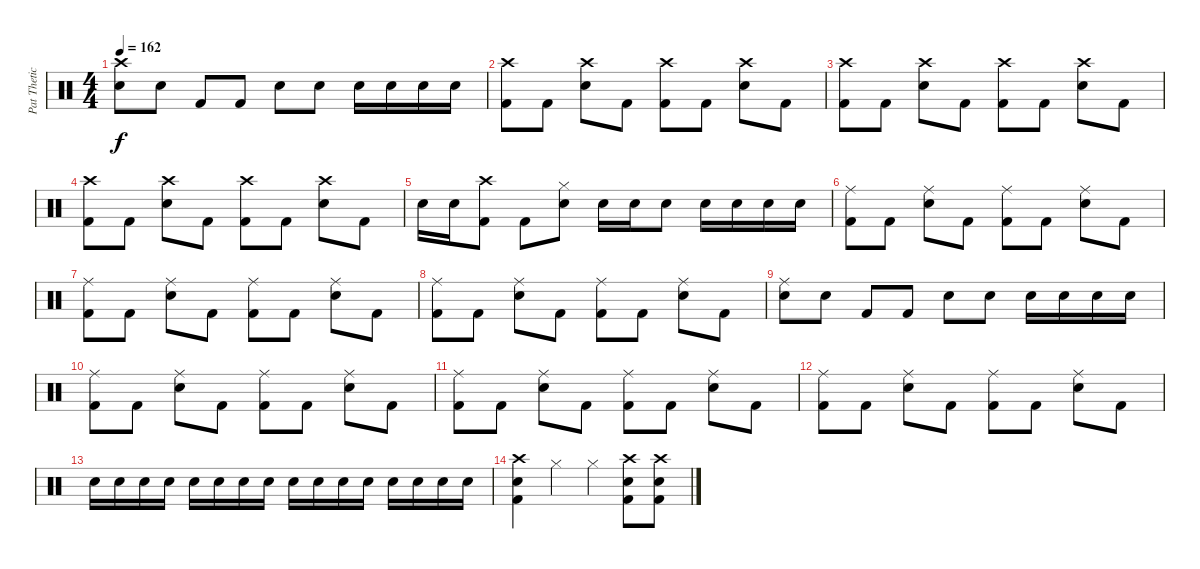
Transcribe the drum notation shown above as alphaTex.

\track ("Pat Thetic" "Pat Thetic") {instrument percussion}
\staff {score}
\articulation defaults
\ts (4 4)
\tempo 162
\clef neutral
\ks c
("Crash high (hit)" "Snare (hit) 2").8{dy f} "Snare (hit) 2".8 "Kick (hit) 2".8 "Kick (hit) 2".8 "Snare (hit) 2".8 "Snare (hit) 2".8 "Snare (hit) 2".16 "Snare (hit) 2".16 "Snare (hit) 2".16 "Snare (hit) 2".16 |
("Crash high (hit)" "Kick (hit) 2").8 "Kick (hit) 2".8 ("Crash high (hit)" "Snare (hit) 2").8 "Kick (hit) 2".8 ("Crash high (hit)" "Kick (hit) 2").8 "Kick (hit) 2".8 ("Crash high (hit)" "Snare (hit) 2").8 "Kick (hit) 2".8 |
("Crash high (hit)" "Kick (hit) 2").8 "Kick (hit) 2".8 ("Crash high (hit)" "Snare (hit) 2").8 "Kick (hit) 2".8 ("Crash high (hit)" "Kick (hit) 2").8 "Kick (hit) 2".8 ("Crash high (hit)" "Snare (hit) 2").8 "Kick (hit) 2".8 |
("Crash high (hit)" "Kick (hit) 2").8 "Kick (hit) 2".8 ("Crash high (hit)" "Snare (hit) 2").8 "Kick (hit) 2".8 ("Crash high (hit)" "Kick (hit) 2").8 "Kick (hit) 2".8 ("Crash high (hit)" "Snare (hit) 2").8 "Kick (hit) 2".8 |
"Snare (hit) 2".16 "Snare (hit) 2".16 ("Crash high (hit)" "Kick (hit) 2").8 "Kick (hit) 2".8 ("Hi-Hat (closed)" "Snare (hit) 2").8 "Snare (hit) 2".16 "Snare (hit) 2".16 "Snare (hit) 2".8 "Snare (hit) 2".16 "Snare (hit) 2".16 "Snare (hit) 2".16 "Snare (hit) 2".16 |
("Ride (middle)" "Kick (hit) 2").8 "Kick (hit) 2".8 ("Ride (middle)" "Snare (hit) 2").8 "Kick (hit) 2".8 ("Ride (middle)" "Kick (hit) 2").8 "Kick (hit) 2".8 ("Ride (middle)" "Snare (hit) 2").8 "Kick (hit) 2".8 |
("Ride (middle)" "Kick (hit) 2").8 "Kick (hit) 2".8 ("Ride (middle)" "Snare (hit) 2").8 "Kick (hit) 2".8 ("Ride (middle)" "Kick (hit) 2").8 "Kick (hit) 2".8 ("Ride (middle)" "Snare (hit) 2").8 "Kick (hit) 2".8 |
("Ride (middle)" "Kick (hit) 2").8 "Kick (hit) 2".8 ("Ride (middle)" "Snare (hit) 2").8 "Kick (hit) 2".8 ("Ride (middle)" "Kick (hit) 2").8 "Kick (hit) 2".8 ("Ride (middle)" "Snare (hit) 2").8 "Kick (hit) 2".8 |
("Ride (middle)" "Snare (hit) 2").8 "Snare (hit) 2".8 "Kick (hit) 2".8 "Kick (hit) 2".8 "Snare (hit) 2".8 "Snare (hit) 2".8 "Snare (hit) 2".16 "Snare (hit) 2".16 "Snare (hit) 2".16 "Snare (hit) 2".16 |
("Ride (middle)" "Kick (hit) 2").8 "Kick (hit) 2".8 ("Ride (middle)" "Snare (hit) 2").8 "Kick (hit) 2".8 ("Ride (middle)" "Kick (hit) 2").8 "Kick (hit) 2".8 ("Ride (middle)" "Snare (hit) 2").8 "Kick (hit) 2".8 |
("Ride (middle)" "Kick (hit) 2").8 "Kick (hit) 2".8 ("Ride (middle)" "Snare (hit) 2").8 "Kick (hit) 2".8 ("Ride (middle)" "Kick (hit) 2").8 "Kick (hit) 2".8 ("Ride (middle)" "Snare (hit) 2").8 "Kick (hit) 2".8 |
("Ride (middle)" "Kick (hit) 2").8 "Kick (hit) 2".8 ("Ride (middle)" "Snare (hit) 2").8 "Kick (hit) 2".8 ("Ride (middle)" "Kick (hit) 2").8 "Kick (hit) 2".8 ("Ride (middle)" "Snare (hit) 2").8 "Kick (hit) 2".8 |
"Snare (hit) 2".16 "Snare (hit) 2".16 "Snare (hit) 2".16 "Snare (hit) 2".16 "Snare (hit) 2".16 "Snare (hit) 2".16 "Snare (hit) 2".16 "Snare (hit) 2".16 "Snare (hit) 2".16 "Snare (hit) 2".16 "Snare (hit) 2".16 "Snare (hit) 2".16 "Snare (hit) 2".16 "Snare (hit) 2".16 "Snare (hit) 2".16 "Snare (hit) 2".16 |
("Snare (hit) 2" "Crash high (hit)" "Kick (hit) 2").4 "Hi-Hat (closed)".4{volume 9} "Hi-Hat (closed)".4 ("Snare (hit) 2" "Crash high (hit)" "Kick (hit) 2").8{volume 13} ("Snare (hit) 2" "Crash high (hit)" "Kick (hit) 2").8{volume 13}
